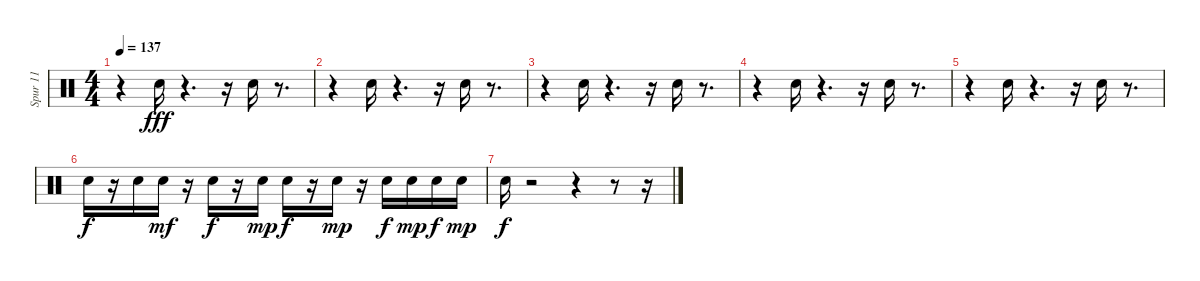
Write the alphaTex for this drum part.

\track ("Spur 11" "Spur 11") {instrument percussion}
\staff {score}
\articulation defaults
\ts (4 4)
\tempo 137
\clef neutral
\ks c
r.4{dy fff} "Snare (hit) 2".16 r.4{d} r.16 "Snare (hit) 2".16 r.8{d} |
r.4 "Snare (hit) 2".16 r.4{d} r.16 "Snare (hit) 2".16 r.8{d} |
r.4 "Snare (hit) 2".16 r.4{d} r.16 "Snare (hit) 2".16 r.8{d} |
r.4 "Snare (hit) 2".16 r.4{d} r.16 "Snare (hit) 2".16 r.8{d} |
r.4 "Snare (hit) 2".16 r.4{d} r.16 "Snare (hit) 2".16 r.8{d} |
"Electric Snare (hit)".16{dy f} r.16 "Electric Snare (hit)".16 "Electric Snare (hit)".16{dy mf} r.16 "Electric Snare (hit)".16{dy f} r.16 "Electric Snare (hit)".16{dy mp} "Electric Snare (hit)".16{dy f} r.16 "Electric Snare (hit)".16{dy mp} r.16 "Electric Snare (hit)".16{dy f} "Electric Snare (hit)".16{dy mp} "Electric Snare (hit)".16{dy f} "Electric Snare (hit)".16{dy mp} |
"Electric Snare (hit)".16{dy f} r.2 r.4 r.8 r.16
